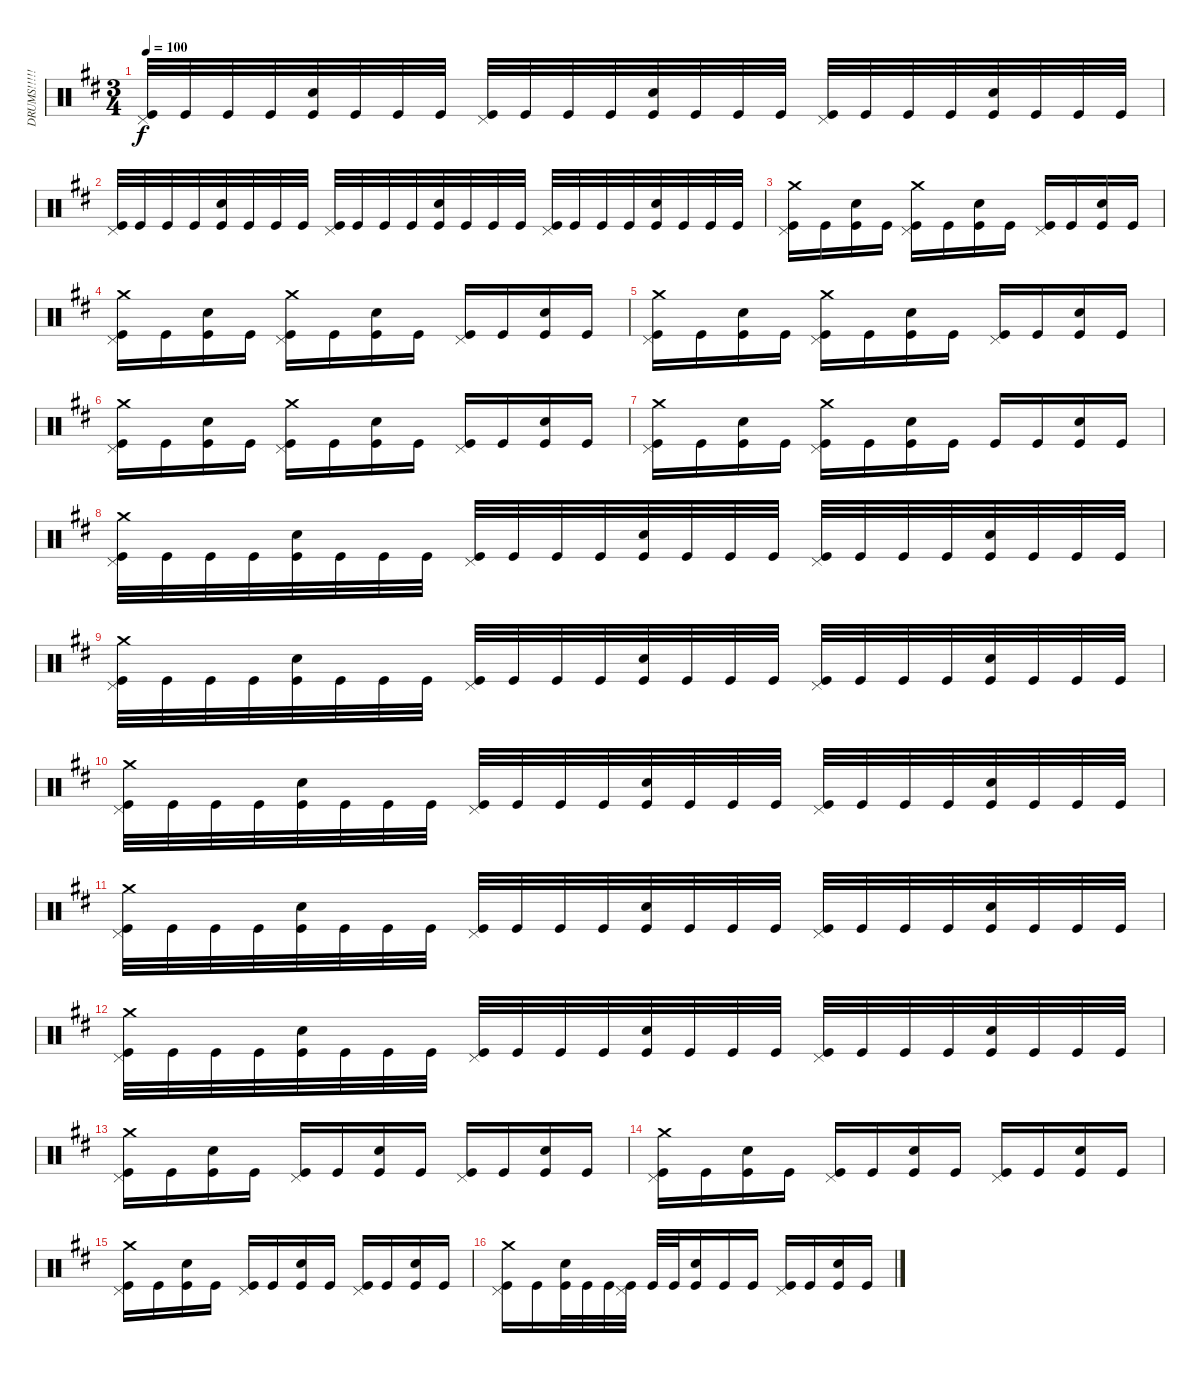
\track ("DRUMS!!!!!" "DRUMS!!!!!") {instrument percussion}
\staff {score}
\articulation defaults
\ts (3 4)
\tempo 100
\clef neutral
\ks d
("Kick (hit)" "Pedal Hi-Hat (hit)").32{dy f} "Kick (hit)".32 "Kick (hit)".32 "Kick (hit)".32 ("Kick (hit)" "Snare (hit) 2").32 "Kick (hit)".32 "Kick (hit)".32 "Kick (hit)".32 ("Kick (hit)" "Pedal Hi-Hat (hit)").32 "Kick (hit)".32 "Kick (hit)".32 "Kick (hit)".32 ("Kick (hit)" "Snare (hit) 2").32 "Kick (hit)".32 "Kick (hit)".32 "Kick (hit)".32 ("Kick (hit)" "Pedal Hi-Hat (hit)").32 "Kick (hit)".32 "Kick (hit)".32 "Kick (hit)".32 ("Kick (hit)" "Snare (hit) 2").32 "Kick (hit)".32 "Kick (hit)".32 "Kick (hit)".32 |
("Kick (hit)" "Pedal Hi-Hat (hit)").32 "Kick (hit)".32 "Kick (hit)".32 "Kick (hit)".32 ("Kick (hit)" "Snare (hit) 2").32 "Kick (hit)".32 "Kick (hit)".32 "Kick (hit)".32 ("Kick (hit)" "Pedal Hi-Hat (hit)").32 "Kick (hit)".32 "Kick (hit)".32 "Kick (hit)".32 ("Kick (hit)" "Snare (hit) 2").32 "Kick (hit)".32 "Kick (hit)".32 "Kick (hit)".32 ("Kick (hit)" "Pedal Hi-Hat (hit)").32 "Kick (hit)".32 "Kick (hit)".32 "Kick (hit)".32 ("Kick (hit)" "Snare (hit) 2").32 "Kick (hit)".32 "Kick (hit)".32 "Kick (hit)".32 |
("Kick (hit)" "Pedal Hi-Hat (hit)" "Crash medium (hit)").16 "Kick (hit)".16 ("Kick (hit)" "Snare (hit) 2").16 "Kick (hit)".16 ("Kick (hit)" "Pedal Hi-Hat (hit)" "Crash medium (hit)").16 "Kick (hit)".16 ("Kick (hit)" "Snare (hit) 2").16 "Kick (hit)".16 ("Kick (hit)" "Pedal Hi-Hat (hit)").16 "Kick (hit)".16 ("Kick (hit)" "Snare (hit) 2").16 "Kick (hit)".16 |
("Kick (hit)" "Pedal Hi-Hat (hit)" "Crash medium (hit)").16 "Kick (hit)".16 ("Kick (hit)" "Snare (hit) 2").16 "Kick (hit)".16 ("Kick (hit)" "Pedal Hi-Hat (hit)" "Crash medium (hit)").16 "Kick (hit)".16 ("Kick (hit)" "Snare (hit) 2").16 "Kick (hit)".16 ("Kick (hit)" "Pedal Hi-Hat (hit)").16 "Kick (hit)".16 ("Kick (hit)" "Snare (hit) 2").16 "Kick (hit)".16 |
("Kick (hit)" "Pedal Hi-Hat (hit)" "Crash medium (hit)").16 "Kick (hit)".16 ("Kick (hit)" "Snare (hit) 2").16 "Kick (hit)".16 ("Kick (hit)" "Pedal Hi-Hat (hit)" "Crash medium (hit)").16 "Kick (hit)".16 ("Kick (hit)" "Snare (hit) 2").16 "Kick (hit)".16 ("Kick (hit)" "Pedal Hi-Hat (hit)").16 "Kick (hit)".16 ("Kick (hit)" "Snare (hit) 2").16 "Kick (hit)".16 |
("Kick (hit)" "Pedal Hi-Hat (hit)" "Crash medium (hit)").16 "Kick (hit)".16 ("Kick (hit)" "Snare (hit) 2").16 "Kick (hit)".16 ("Kick (hit)" "Pedal Hi-Hat (hit)" "Crash medium (hit)").16 "Kick (hit)".16 ("Kick (hit)" "Snare (hit) 2").16 "Kick (hit)".16 ("Kick (hit)" "Pedal Hi-Hat (hit)").16 "Kick (hit)".16 ("Kick (hit)" "Snare (hit) 2").16 "Kick (hit)".16 |
("Kick (hit)" "Pedal Hi-Hat (hit)" "Crash medium (hit)").16 "Kick (hit)".16 ("Kick (hit)" "Snare (hit) 2").16 "Kick (hit)".16 ("Kick (hit)" "Pedal Hi-Hat (hit)" "Crash medium (hit)").16 "Kick (hit)".16 ("Kick (hit)" "Snare (hit) 2").16 "Kick (hit)".16 "Kick (hit)".16 "Kick (hit)".16 ("Kick (hit)" "Snare (hit) 2").16 "Kick (hit)".16 |
("Kick (hit)" "Pedal Hi-Hat (hit)" "Crash medium (hit)").32 "Kick (hit)".32 "Kick (hit)".32 "Kick (hit)".32 ("Kick (hit)" "Snare (hit) 2").32 "Kick (hit)".32 "Kick (hit)".32 "Kick (hit)".32 ("Kick (hit)" "Pedal Hi-Hat (hit)").32 "Kick (hit)".32 "Kick (hit)".32 "Kick (hit)".32 ("Kick (hit)" "Snare (hit) 2").32 "Kick (hit)".32 "Kick (hit)".32 "Kick (hit)".32 ("Kick (hit)" "Pedal Hi-Hat (hit)").32 "Kick (hit)".32 "Kick (hit)".32 "Kick (hit)".32 ("Kick (hit)" "Snare (hit) 2").32 "Kick (hit)".32 "Kick (hit)".32 "Kick (hit)".32 |
("Kick (hit)" "Pedal Hi-Hat (hit)" "Crash medium (hit)").32 "Kick (hit)".32 "Kick (hit)".32 "Kick (hit)".32 ("Kick (hit)" "Snare (hit) 2").32 "Kick (hit)".32 "Kick (hit)".32 "Kick (hit)".32 ("Kick (hit)" "Pedal Hi-Hat (hit)").32 "Kick (hit)".32 "Kick (hit)".32 "Kick (hit)".32 ("Kick (hit)" "Snare (hit) 2").32 "Kick (hit)".32 "Kick (hit)".32 "Kick (hit)".32 ("Kick (hit)" "Pedal Hi-Hat (hit)").32 "Kick (hit)".32 "Kick (hit)".32 "Kick (hit)".32 ("Kick (hit)" "Snare (hit) 2").32 "Kick (hit)".32 "Kick (hit)".32 "Kick (hit)".32 |
("Kick (hit)" "Pedal Hi-Hat (hit)" "Crash medium (hit)").32 "Kick (hit)".32 "Kick (hit)".32 "Kick (hit)".32 ("Kick (hit)" "Snare (hit) 2").32 "Kick (hit)".32 "Kick (hit)".32 "Kick (hit)".32 ("Kick (hit)" "Pedal Hi-Hat (hit)").32 "Kick (hit)".32 "Kick (hit)".32 "Kick (hit)".32 ("Kick (hit)" "Snare (hit) 2").32 "Kick (hit)".32 "Kick (hit)".32 "Kick (hit)".32 ("Kick (hit)" "Pedal Hi-Hat (hit)").32 "Kick (hit)".32 "Kick (hit)".32 "Kick (hit)".32 ("Kick (hit)" "Snare (hit) 2").32 "Kick (hit)".32 "Kick (hit)".32 "Kick (hit)".32 |
("Kick (hit)" "Pedal Hi-Hat (hit)" "Crash medium (hit)").32 "Kick (hit)".32 "Kick (hit)".32 "Kick (hit)".32 ("Kick (hit)" "Snare (hit) 2").32 "Kick (hit)".32 "Kick (hit)".32 "Kick (hit)".32 ("Kick (hit)" "Pedal Hi-Hat (hit)").32 "Kick (hit)".32 "Kick (hit)".32 "Kick (hit)".32 ("Kick (hit)" "Snare (hit) 2").32 "Kick (hit)".32 "Kick (hit)".32 "Kick (hit)".32 ("Kick (hit)" "Pedal Hi-Hat (hit)").32 "Kick (hit)".32 "Kick (hit)".32 "Kick (hit)".32 ("Kick (hit)" "Snare (hit) 2").32 "Kick (hit)".32 "Kick (hit)".32 "Kick (hit)".32 |
("Kick (hit)" "Pedal Hi-Hat (hit)" "Crash medium (hit)").32 "Kick (hit)".32 "Kick (hit)".32 "Kick (hit)".32 ("Kick (hit)" "Snare (hit) 2").32 "Kick (hit)".32 "Kick (hit)".32 "Kick (hit)".32 ("Kick (hit)" "Pedal Hi-Hat (hit)").32 "Kick (hit)".32 "Kick (hit)".32 "Kick (hit)".32 ("Kick (hit)" "Snare (hit) 2").32 "Kick (hit)".32 "Kick (hit)".32 "Kick (hit)".32 ("Kick (hit)" "Pedal Hi-Hat (hit)").32 "Kick (hit)".32 "Kick (hit)".32 "Kick (hit)".32 ("Kick (hit)" "Snare (hit) 2").32 "Kick (hit)".32 "Kick (hit)".32 "Kick (hit)".32 |
("Kick (hit)" "Pedal Hi-Hat (hit)" "Crash medium (hit)").16 "Kick (hit)".16 ("Kick (hit)" "Snare (hit) 2").16 "Kick (hit)".16 ("Kick (hit)" "Pedal Hi-Hat (hit)").16 "Kick (hit)".16 ("Kick (hit)" "Snare (hit) 2").16 "Kick (hit)".16 ("Kick (hit)" "Pedal Hi-Hat (hit)").16 "Kick (hit)".16 ("Kick (hit)" "Snare (hit) 2").16 "Kick (hit)".16 |
("Kick (hit)" "Pedal Hi-Hat (hit)" "Crash medium (hit)").16 "Kick (hit)".16 ("Kick (hit)" "Snare (hit) 2").16 "Kick (hit)".16 ("Kick (hit)" "Pedal Hi-Hat (hit)").16 "Kick (hit)".16 ("Kick (hit)" "Snare (hit) 2").16 "Kick (hit)".16 ("Kick (hit)" "Pedal Hi-Hat (hit)").16 "Kick (hit)".16 ("Kick (hit)" "Snare (hit) 2").16 "Kick (hit)".16 |
("Kick (hit)" "Pedal Hi-Hat (hit)" "Crash medium (hit)").16 "Kick (hit)".16 ("Kick (hit)" "Snare (hit) 2").16 "Kick (hit)".16 ("Kick (hit)" "Pedal Hi-Hat (hit)").16 "Kick (hit)".16 ("Kick (hit)" "Snare (hit) 2").16 "Kick (hit)".16 ("Kick (hit)" "Pedal Hi-Hat (hit)").16 "Kick (hit)".16 ("Kick (hit)" "Snare (hit) 2").16 "Kick (hit)".16 |
("Kick (hit)" "Pedal Hi-Hat (hit)" "Crash medium (hit)").16 "Kick (hit)".16 ("Kick (hit)" "Snare (hit) 2").32 "Kick (hit)".32 "Kick (hit)".32 ("Kick (hit)" "Pedal Hi-Hat (hit)").32 "Kick (hit)".32 "Kick (hit)".32 ("Kick (hit)" "Snare (hit) 2").16 "Kick (hit)".16 "Kick (hit)".16 ("Kick (hit)" "Pedal Hi-Hat (hit)").16 "Kick (hit)".16 ("Kick (hit)" "Snare (hit) 2").16 "Kick (hit)".16
